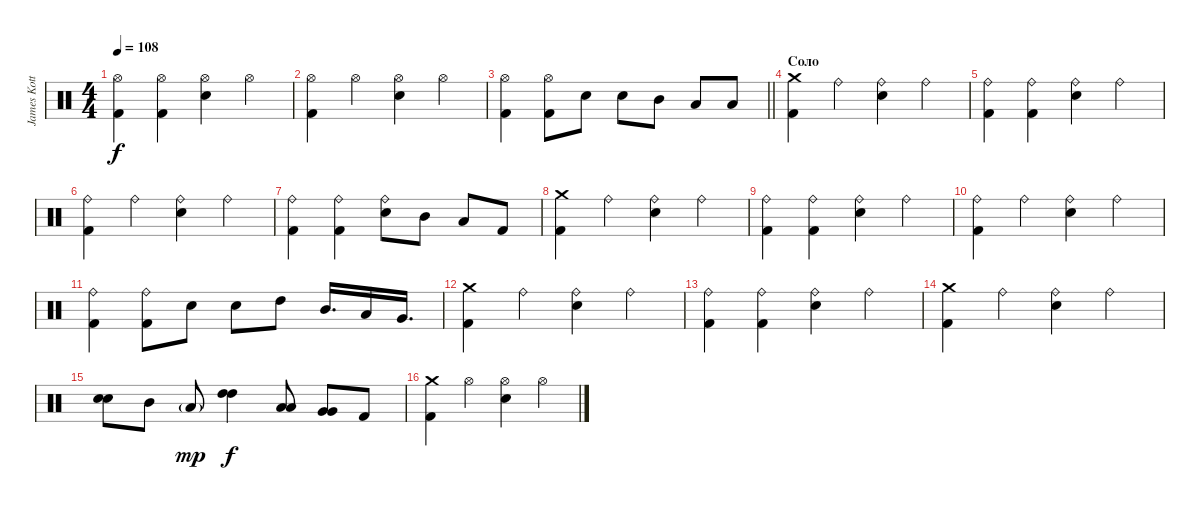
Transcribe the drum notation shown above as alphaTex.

\track ("James Kottak" "James Kott") {instrument percussion}
\staff {score}
\articulation defaults
\ts (4 4)
\tempo 108
\clef neutral
\ks c
("Hi-Hat (open)" "Kick (hit) 2").4{dy f} ("Hi-Hat (open)" "Kick (hit) 2").4 ("Hi-Hat (open)" "Snare (hit) 2").4 "Hi-Hat (open)".4 |
("Hi-Hat (open)" "Kick (hit) 2").4 "Hi-Hat (open)".4 ("Hi-Hat (open)" "Snare (hit) 2").4 "Hi-Hat (open)".4 |
\barLineRight lightlight
("Hi-Hat (open)" "Kick (hit) 2").4 ("Hi-Hat (open)" "Kick (hit) 2").8 "Snare (hit) 2".8 "Snare (hit) 2".8 "Mid Tom (hit)".8 "Low Tom (hit)".8 "Low Floor Tom (hit)".8 |
\section ("" "Cоло")
("Crash medium (hit)" "Kick (hit) 2").4 "Ride (bell)".4 ("Ride (bell)" "Snare (hit) 2").4 "Ride (bell)".4 |
("Ride (bell)" "Kick (hit) 2").4 ("Ride (bell)" "Kick (hit) 2").4 ("Ride (bell)" "Snare (hit) 2").4 "Ride (bell)".4 |
("Ride (bell)" "Kick (hit) 2").4 "Ride (bell)".4 ("Ride (bell)" "Snare (hit) 2").4 "Ride (bell)".4 |
("Ride (bell)" "Kick (hit) 2").4 ("Ride (bell)" "Kick (hit) 2").4 ("Ride (bell)" "Snare (hit) 2").8 "Mid Tom (hit)".8 "Low Tom (hit)".8 "Kick (hit) 2".8 |
("Crash medium (hit)" "Kick (hit) 2").4 "Ride (bell)".4 ("Ride (bell)" "Snare (hit) 2").4 "Ride (bell)".4 |
("Ride (bell)" "Kick (hit) 2").4 ("Ride (bell)" "Kick (hit) 2").4 ("Ride (bell)" "Snare (hit) 2").4 "Ride (bell)".4 |
("Ride (bell)" "Kick (hit) 2").4 "Ride (bell)".4 ("Ride (bell)" "Snare (hit) 2").4 "Ride (bell)".4 |
("Ride (bell)" "Kick (hit) 2").4 ("Ride (bell)" "Kick (hit) 2").8 "Snare (hit) 2".8 "Snare (hit) 2".8 "High Tom (hit)".8 "Mid Tom (hit)".16{d} "Low Tom (hit)".16 "Very Low Tom (hit)".16{d} |
("Crash medium (hit)" "Kick (hit) 2").4 "Ride (bell)".4 ("Ride (bell)" "Snare (hit) 2").4 "Ride (bell)".4 |
("Ride (bell)" "Kick (hit) 2").4 ("Ride (bell)" "Kick (hit) 2").4 ("Ride (bell)" "Snare (hit) 2").4 "Ride (bell)".4 |
("Crash medium (hit)" "Kick (hit) 2").4 "Ride (bell)".4 ("Ride (bell)" "Snare (hit) 2").4 "Ride (bell)".4 |
("Snare (hit) 2" "Snare (hit) 2").8{bd 120} "Mid Tom (hit)".8 "Low Tom (hit)"{g}.8{dy mp} ("High Tom (hit)" "High Tom (hit)").4{bd 120 dy f} ("Low Tom (hit)" "Low Tom (hit)").8{bu 120} ("Very Low Tom (hit)" "Very Low Tom (hit)").8{bd 120} "Kick (hit) 2".8 |
("Crash medium (hit)" "Kick (hit) 2").4 "Hi-Hat (open)".4 ("Hi-Hat (open)" "Snare (hit) 2").4 "Hi-Hat (open)".4
